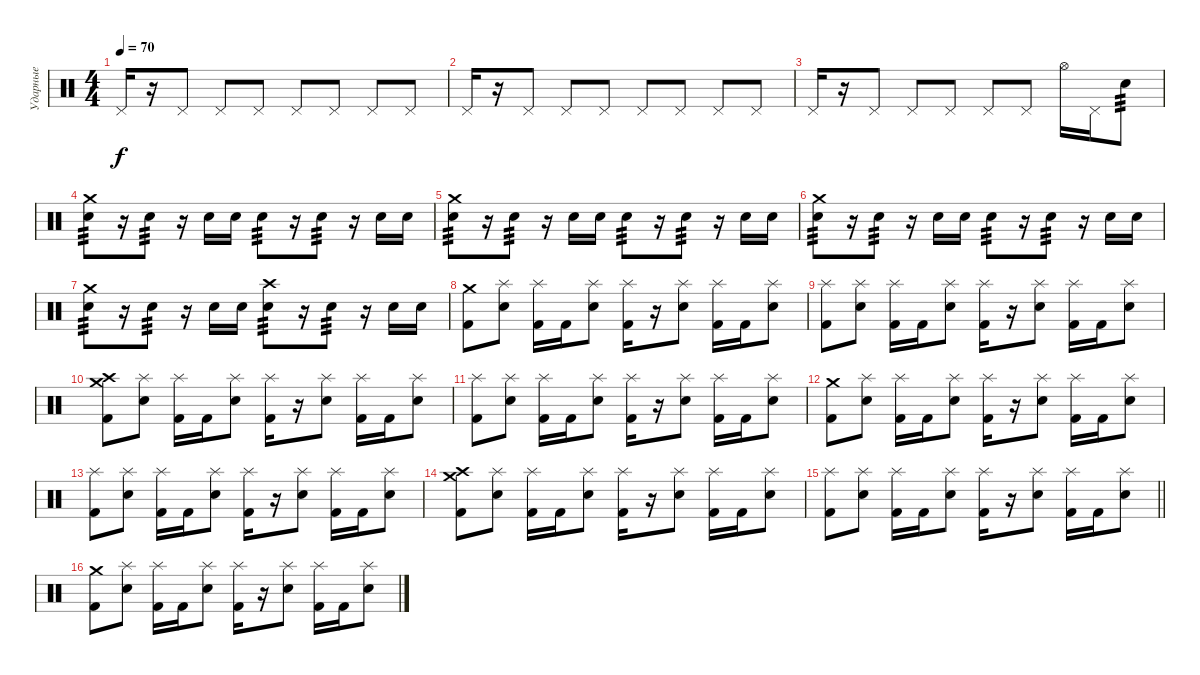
\track ("Ударные" "Ударные") {instrument percussion}
\staff {score}
\articulation defaults
\ts (4 4)
\tempo 70
\clef neutral
\ks c "Pedal Hi-Hat (hit)".16{dy f}
r.16 "Pedal Hi-Hat (hit)".8 "Pedal Hi-Hat (hit)".8 "Pedal Hi-Hat (hit)".8 "Pedal Hi-Hat (hit)".8 "Pedal Hi-Hat (hit)".8 "Pedal Hi-Hat (hit)".8 "Pedal Hi-Hat (hit)".8 |
"Pedal Hi-Hat (hit)".16 r.16 "Pedal Hi-Hat (hit)".8 "Pedal Hi-Hat (hit)".8 "Pedal Hi-Hat (hit)".8 "Pedal Hi-Hat (hit)".8 "Pedal Hi-Hat (hit)".8 "Pedal Hi-Hat (hit)".8 "Pedal Hi-Hat (hit)".8 |
"Pedal Hi-Hat (hit)".16 r.16 "Pedal Hi-Hat (hit)".8 "Pedal Hi-Hat (hit)".8 "Pedal Hi-Hat (hit)".8 "Pedal Hi-Hat (hit)".8 "Pedal Hi-Hat (hit)".8 "Hi-Hat (open)".16 "Pedal Hi-Hat (hit)".16 "Electric Snare (hit)".8{tp 3} |
("Crash medium (hit)" "Electric Snare (hit)").8{tp 3} r.16 "Electric Snare (hit)".8{tp 3} r.16 "Electric Snare (hit)".16 "Electric Snare (hit)".16 "Electric Snare (hit)".8{tp 3} r.16 "Electric Snare (hit)".8{tp 3} r.16 "Electric Snare (hit)".16 "Electric Snare (hit)".16 |
("Crash medium (hit)" "Electric Snare (hit)").8{tp 3} r.16 "Electric Snare (hit)".8{tp 3} r.16 "Electric Snare (hit)".16 "Electric Snare (hit)".16 "Electric Snare (hit)".8{tp 3} r.16 "Electric Snare (hit)".8{tp 3} r.16 "Electric Snare (hit)".16 "Electric Snare (hit)".16 |
("Crash medium (hit)" "Electric Snare (hit)").8{tp 3} r.16 "Electric Snare (hit)".8{tp 3} r.16 "Electric Snare (hit)".16 "Electric Snare (hit)".16 "Electric Snare (hit)".8{tp 3} r.16 "Electric Snare (hit)".8{tp 3} r.16 "Electric Snare (hit)".16 "Electric Snare (hit)".16 |
("Crash medium (hit)" "Electric Snare (hit)").8{tp 3} r.16 "Electric Snare (hit)".8{tp 3} r.16 "Electric Snare (hit)".16 "Electric Snare (hit)".16 ("Crash high (hit)" "Electric Snare (hit)").8{tp 3} r.16 "Electric Snare (hit)".8{tp 3} r.16 "Electric Snare (hit)".16 "Electric Snare (hit)".16 |
("Crash medium (hit)" "Kick (hit) 2").8 ("Splash (hit)" "Electric Snare (hit)").8 ("Splash (hit)" "Kick (hit) 2").16 "Kick (hit) 2".16 ("Splash (hit)" "Electric Snare (hit)").8 ("Splash (hit)" "Kick (hit) 2").16 r.16 ("Splash (hit)" "Electric Snare (hit)").8 ("Splash (hit)" "Kick (hit) 2").16 "Kick (hit) 2".16 ("Splash (hit)" "Electric Snare (hit)").8 |
("Splash (hit)" "Kick (hit) 2").8 ("Splash (hit)" "Electric Snare (hit)").8 ("Splash (hit)" "Kick (hit) 2").16 "Kick (hit) 2".16 ("Splash (hit)" "Electric Snare (hit)").8 ("Splash (hit)" "Kick (hit) 2").16 r.16 ("Splash (hit)" "Electric Snare (hit)").8 ("Splash (hit)" "Kick (hit) 2").16 "Kick (hit) 2".16 ("Splash (hit)" "Electric Snare (hit)").8 |
("Crash high (hit)" "Crash medium (hit)" "Kick (hit) 2").8 ("Splash (hit)" "Electric Snare (hit)").8 ("Splash (hit)" "Kick (hit) 2").16 "Kick (hit) 2".16 ("Splash (hit)" "Electric Snare (hit)").8 ("Splash (hit)" "Kick (hit) 2").16 r.16 ("Splash (hit)" "Electric Snare (hit)").8 ("Splash (hit)" "Kick (hit) 2").16 "Kick (hit) 2".16 ("Splash (hit)" "Electric Snare (hit)").8 |
("Splash (hit)" "Kick (hit) 2").8 ("Splash (hit)" "Electric Snare (hit)").8 ("Splash (hit)" "Kick (hit) 2").16 "Kick (hit) 2".16 ("Splash (hit)" "Electric Snare (hit)").8 ("Splash (hit)" "Kick (hit) 2").16 r.16 ("Splash (hit)" "Electric Snare (hit)").8 ("Splash (hit)" "Kick (hit) 2").16 "Kick (hit) 2".16 ("Splash (hit)" "Electric Snare (hit)").8 |
("Crash medium (hit)" "Kick (hit) 2").8 ("Splash (hit)" "Electric Snare (hit)").8 ("Splash (hit)" "Kick (hit) 2").16 "Kick (hit) 2".16 ("Splash (hit)" "Electric Snare (hit)").8 ("Splash (hit)" "Kick (hit) 2").16 r.16 ("Splash (hit)" "Electric Snare (hit)").8 ("Splash (hit)" "Kick (hit) 2").16 "Kick (hit) 2".16 ("Splash (hit)" "Electric Snare (hit)").8 |
("Splash (hit)" "Kick (hit) 2").8 ("Splash (hit)" "Electric Snare (hit)").8 ("Splash (hit)" "Kick (hit) 2").16 "Kick (hit) 2".16 ("Splash (hit)" "Electric Snare (hit)").8 ("Splash (hit)" "Kick (hit) 2").16 r.16 ("Splash (hit)" "Electric Snare (hit)").8 ("Splash (hit)" "Kick (hit) 2").16 "Kick (hit) 2".16 ("Splash (hit)" "Electric Snare (hit)").8 |
("Crash high (hit)" "Crash medium (hit)" "Kick (hit) 2").8 ("Splash (hit)" "Electric Snare (hit)").8 ("Splash (hit)" "Kick (hit) 2").16 "Kick (hit) 2".16 ("Splash (hit)" "Electric Snare (hit)").8 ("Splash (hit)" "Kick (hit) 2").16 r.16 ("Splash (hit)" "Electric Snare (hit)").8 ("Splash (hit)" "Kick (hit) 2").16 "Kick (hit) 2".16 ("Splash (hit)" "Electric Snare (hit)").8 |
\barLineRight lightlight
("Splash (hit)" "Kick (hit) 2").8 ("Splash (hit)" "Electric Snare (hit)").8 ("Splash (hit)" "Kick (hit) 2").16 "Kick (hit) 2".16 ("Splash (hit)" "Electric Snare (hit)").8 ("Splash (hit)" "Kick (hit) 2").16 r.16 ("Splash (hit)" "Electric Snare (hit)").8 ("Splash (hit)" "Kick (hit) 2").16 "Kick (hit) 2".16 ("Splash (hit)" "Electric Snare (hit)").8 |
("Crash medium (hit)" "Kick (hit) 2").8 ("Splash (hit)" "Electric Snare (hit)").8 ("Splash (hit)" "Kick (hit) 2").16 "Kick (hit) 2".16 ("Splash (hit)" "Electric Snare (hit)").8 ("Splash (hit)" "Kick (hit) 2").16 r.16 ("Splash (hit)" "Electric Snare (hit)").8 ("Splash (hit)" "Kick (hit) 2").16 "Kick (hit) 2".16 ("Splash (hit)" "Electric Snare (hit)").8
